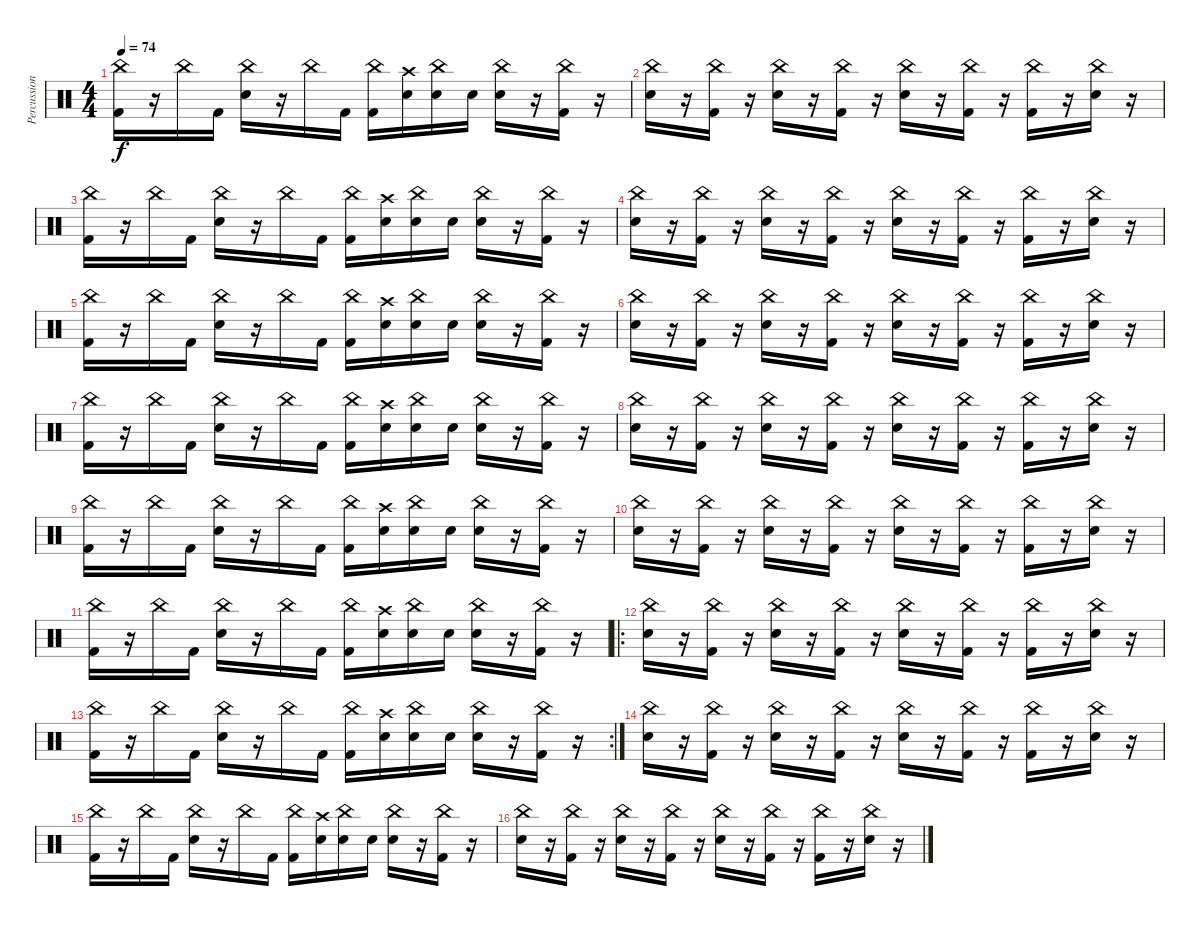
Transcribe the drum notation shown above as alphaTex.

\track ("Percussion" "Percussion") {instrument percussion}
\staff {score}
\articulation defaults
\ts (4 4)
\tempo 74
\clef neutral
\ks c
("Kick (hit) 2" "China (hit)").16{dy f} r.16 "China (hit)".16 "Kick (hit) 2".16 ("Electric Snare (hit)" "China (hit)").16 r.16 "China (hit)".16 "Kick (hit) 2".16 ("Kick (hit) 2" "China (hit)").16 ("Electric Snare (hit)" "Crash high (hit)").16 ("Electric Snare (hit)" "China (hit)").16 "Electric Snare (hit)".16 ("Electric Snare (hit)" "China (hit)").16 r.16 ("Kick (hit) 2" "China (hit)").16 r.16 |
("Electric Snare (hit)" "China (hit)").16 r.16 ("Kick (hit) 2" "China (hit)").16 r.16 ("Electric Snare (hit)" "China (hit)").16 r.16 ("Kick (hit) 2" "China (hit)").16 r.16 ("Electric Snare (hit)" "China (hit)").16 r.16 ("Kick (hit) 2" "China (hit)").16 r.16 ("Kick (hit) 2" "China (hit)").16 r.16 ("Electric Snare (hit)" "China (hit)").16 r.16 |
("Kick (hit) 2" "China (hit)").16 r.16 "China (hit)".16 "Kick (hit) 2".16 ("Electric Snare (hit)" "China (hit)").16 r.16 "China (hit)".16 "Kick (hit) 2".16 ("Kick (hit) 2" "China (hit)").16 ("Electric Snare (hit)" "Crash high (hit)").16 ("Electric Snare (hit)" "China (hit)").16 "Electric Snare (hit)".16 ("Electric Snare (hit)" "China (hit)").16 r.16 ("Kick (hit) 2" "China (hit)").16 r.16 |
("Electric Snare (hit)" "China (hit)").16 r.16 ("Kick (hit) 2" "China (hit)").16 r.16 ("Electric Snare (hit)" "China (hit)").16 r.16 ("Kick (hit) 2" "China (hit)").16 r.16 ("Electric Snare (hit)" "China (hit)").16 r.16 ("Kick (hit) 2" "China (hit)").16 r.16 ("Kick (hit) 2" "China (hit)").16 r.16 ("Electric Snare (hit)" "China (hit)").16 r.16 |
("Kick (hit) 2" "China (hit)").16 r.16 "China (hit)".16 "Kick (hit) 2".16 ("Electric Snare (hit)" "China (hit)").16 r.16 "China (hit)".16 "Kick (hit) 2".16 ("Kick (hit) 2" "China (hit)").16 ("Electric Snare (hit)" "Crash high (hit)").16 ("Electric Snare (hit)" "China (hit)").16 "Electric Snare (hit)".16 ("Electric Snare (hit)" "China (hit)").16 r.16 ("Kick (hit) 2" "China (hit)").16 r.16 |
("Electric Snare (hit)" "China (hit)").16 r.16 ("Kick (hit) 2" "China (hit)").16 r.16 ("Electric Snare (hit)" "China (hit)").16 r.16 ("Kick (hit) 2" "China (hit)").16 r.16 ("Electric Snare (hit)" "China (hit)").16 r.16 ("Kick (hit) 2" "China (hit)").16 r.16 ("Kick (hit) 2" "China (hit)").16 r.16 ("Electric Snare (hit)" "China (hit)").16 r.16 |
("Kick (hit) 2" "China (hit)").16 r.16 "China (hit)".16 "Kick (hit) 2".16 ("Electric Snare (hit)" "China (hit)").16 r.16 "China (hit)".16 "Kick (hit) 2".16 ("Kick (hit) 2" "China (hit)").16 ("Electric Snare (hit)" "Crash high (hit)").16 ("Electric Snare (hit)" "China (hit)").16 "Electric Snare (hit)".16 ("Electric Snare (hit)" "China (hit)").16 r.16 ("Kick (hit) 2" "China (hit)").16 r.16 |
("Electric Snare (hit)" "China (hit)").16 r.16 ("Kick (hit) 2" "China (hit)").16 r.16 ("Electric Snare (hit)" "China (hit)").16 r.16 ("Kick (hit) 2" "China (hit)").16 r.16 ("Electric Snare (hit)" "China (hit)").16 r.16 ("Kick (hit) 2" "China (hit)").16 r.16 ("Kick (hit) 2" "China (hit)").16 r.16 ("Electric Snare (hit)" "China (hit)").16 r.16 |
("Kick (hit) 2" "China (hit)").16 r.16 "China (hit)".16 "Kick (hit) 2".16 ("Electric Snare (hit)" "China (hit)").16 r.16 "China (hit)".16 "Kick (hit) 2".16 ("Kick (hit) 2" "China (hit)").16 ("Electric Snare (hit)" "Crash high (hit)").16 ("Electric Snare (hit)" "China (hit)").16 "Electric Snare (hit)".16 ("Electric Snare (hit)" "China (hit)").16 r.16 ("Kick (hit) 2" "China (hit)").16 r.16 |
("Electric Snare (hit)" "China (hit)").16 r.16 ("Kick (hit) 2" "China (hit)").16 r.16 ("Electric Snare (hit)" "China (hit)").16 r.16 ("Kick (hit) 2" "China (hit)").16 r.16 ("Electric Snare (hit)" "China (hit)").16 r.16 ("Kick (hit) 2" "China (hit)").16 r.16 ("Kick (hit) 2" "China (hit)").16 r.16 ("Electric Snare (hit)" "China (hit)").16 r.16 |
("Kick (hit) 2" "China (hit)").16 r.16 "China (hit)".16 "Kick (hit) 2".16 ("Electric Snare (hit)" "China (hit)").16 r.16 "China (hit)".16 "Kick (hit) 2".16 ("Kick (hit) 2" "China (hit)").16 ("Electric Snare (hit)" "Crash high (hit)").16 ("Electric Snare (hit)" "China (hit)").16 "Electric Snare (hit)".16 ("Electric Snare (hit)" "China (hit)").16 r.16 ("Kick (hit) 2" "China (hit)").16 r.16 |
\ro
("Electric Snare (hit)" "China (hit)").16 r.16 ("Kick (hit) 2" "China (hit)").16 r.16 ("Electric Snare (hit)" "China (hit)").16 r.16 ("Kick (hit) 2" "China (hit)").16 r.16 ("Electric Snare (hit)" "China (hit)").16 r.16 ("Kick (hit) 2" "China (hit)").16 r.16 ("Kick (hit) 2" "China (hit)").16 r.16 ("Electric Snare (hit)" "China (hit)").16 r.16 |
\rc 2
("Kick (hit) 2" "China (hit)").16 r.16 "China (hit)".16 "Kick (hit) 2".16 ("Electric Snare (hit)" "China (hit)").16 r.16 "China (hit)".16 "Kick (hit) 2".16 ("Kick (hit) 2" "China (hit)").16 ("Electric Snare (hit)" "Crash high (hit)").16 ("Electric Snare (hit)" "China (hit)").16 "Electric Snare (hit)".16 ("Electric Snare (hit)" "China (hit)").16 r.16 ("Kick (hit) 2" "China (hit)").16 r.16 |
("Electric Snare (hit)" "China (hit)").16 r.16 ("Kick (hit) 2" "China (hit)").16 r.16 ("Electric Snare (hit)" "China (hit)").16 r.16 ("Kick (hit) 2" "China (hit)").16 r.16 ("Electric Snare (hit)" "China (hit)").16 r.16 ("Kick (hit) 2" "China (hit)").16 r.16 ("Kick (hit) 2" "China (hit)").16 r.16 ("Electric Snare (hit)" "China (hit)").16 r.16 |
("Kick (hit) 2" "China (hit)").16 r.16 "China (hit)".16 "Kick (hit) 2".16 ("Electric Snare (hit)" "China (hit)").16 r.16 "China (hit)".16 "Kick (hit) 2".16 ("Kick (hit) 2" "China (hit)").16 ("Electric Snare (hit)" "Crash high (hit)").16 ("Electric Snare (hit)" "China (hit)").16 "Electric Snare (hit)".16 ("Electric Snare (hit)" "China (hit)").16 r.16 ("Kick (hit) 2" "China (hit)").16 r.16 |
("Electric Snare (hit)" "China (hit)").16 r.16 ("Kick (hit) 2" "China (hit)").16 r.16 ("Electric Snare (hit)" "China (hit)").16 r.16 ("Kick (hit) 2" "China (hit)").16 r.16 ("Electric Snare (hit)" "China (hit)").16 r.16 ("Kick (hit) 2" "China (hit)").16 r.16 ("Kick (hit) 2" "China (hit)").16 r.16 ("Electric Snare (hit)" "China (hit)").16 r.16
